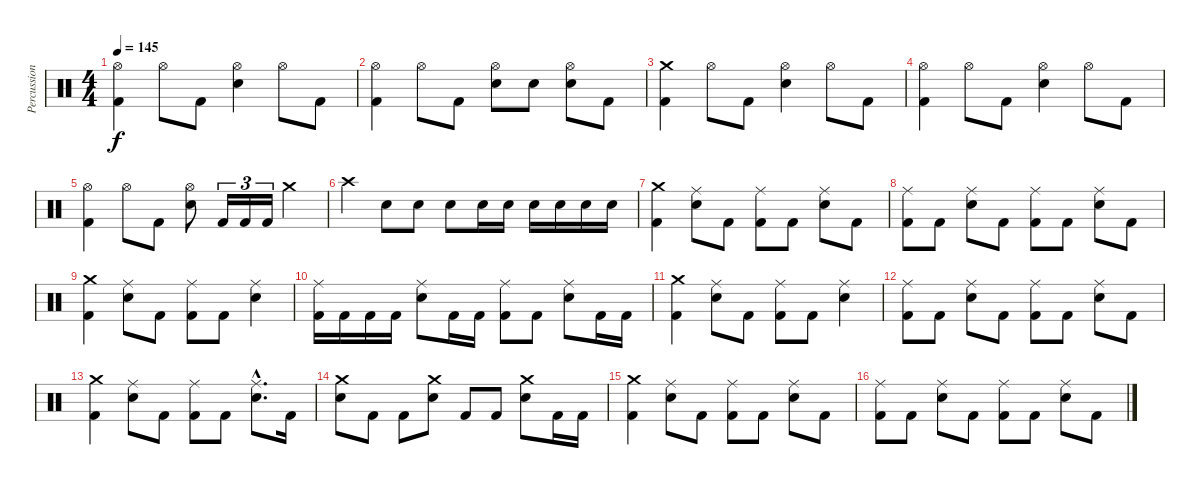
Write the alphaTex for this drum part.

\track ("Percussion" "Percussion") {instrument percussion}
\staff {score}
\articulation defaults
\ts (4 4)
\tempo 145
\clef neutral
\ks c
("Hi-Hat (open)" "Kick (hit) 2").4{dy f} "Hi-Hat (open)".8 "Kick (hit) 2".8 ("Hi-Hat (open)" "Snare (hit) 2").4 "Hi-Hat (open)".8 "Kick (hit) 2".8 |
("Hi-Hat (open)" "Kick (hit) 2").4 "Hi-Hat (open)".8 "Kick (hit) 2".8 ("Hi-Hat (open)" "Snare (hit) 2").8 "Snare (hit) 2".8 ("Hi-Hat (open)" "Snare (hit) 2").8 "Kick (hit) 2".8 |
("Crash medium (hit)" "Kick (hit) 2").4 "Hi-Hat (open)".8 "Kick (hit) 2".8 ("Hi-Hat (open)" "Snare (hit) 2").4 "Hi-Hat (open)".8 "Kick (hit) 2".8 |
("Hi-Hat (open)" "Kick (hit) 2").4 "Hi-Hat (open)".8 "Kick (hit) 2".8 ("Hi-Hat (open)" "Snare (hit) 2").4 "Hi-Hat (open)".8 "Kick (hit) 2".8 |
("Hi-Hat (open)" "Kick (hit) 2").4 "Hi-Hat (open)".8 "Kick (hit) 2".8 ("Hi-Hat (open)" "Snare (hit) 2").8 "Kick (hit) 2".16{tu (3 2)} "Kick (hit) 2".16{tu (3 2)} "Kick (hit) 2".16{tu (3 2)} "Crash medium (hit)".4 |
"Crash high (hit)".4 "Snare (hit) 2".8 "Snare (hit) 2".8 "Snare (hit) 2".8 "Snare (hit) 2".16 "Snare (hit) 2".16 "Snare (hit) 2".16 "Snare (hit) 2".16 "Snare (hit) 2".16 "Snare (hit) 2".16 |
("Crash medium (hit)" "Kick (hit) 2").4 ("Ride (middle)" "Snare (hit) 2").8 "Kick (hit) 2".8 ("Ride (middle)" "Kick (hit) 2").8 "Kick (hit) 2".8 ("Ride (middle)" "Snare (hit) 2").8 "Kick (hit) 2".8 |
("Ride (middle)" "Kick (hit) 2").8 "Kick (hit) 2".8 ("Ride (middle)" "Snare (hit) 2").8 "Kick (hit) 2".8 ("Ride (middle)" "Kick (hit) 2").8 "Kick (hit) 2".8 ("Ride (middle)" "Snare (hit) 2").8 "Kick (hit) 2".8 |
("Crash medium (hit)" "Kick (hit) 2").4 ("Ride (middle)" "Snare (hit) 2").8 "Kick (hit) 2".8 ("Ride (middle)" "Kick (hit) 2").8 "Kick (hit) 2".8 ("Ride (middle)" "Snare (hit) 2").4 |
("Ride (middle)" "Kick (hit) 2").16 "Kick (hit) 2".16 "Kick (hit) 2".16 "Kick (hit) 2".16 ("Ride (middle)" "Snare (hit) 2").8 "Kick (hit) 2".16 "Kick (hit) 2".16 ("Ride (middle)" "Kick (hit) 2").8 "Kick (hit) 2".8 ("Ride (middle)" "Snare (hit) 2").8 "Kick (hit) 2".16 "Kick (hit) 2".16 |
("Crash medium (hit)" "Kick (hit) 2").4 ("Ride (middle)" "Snare (hit) 2").8 "Kick (hit) 2".8 ("Ride (middle)" "Kick (hit) 2").8 "Kick (hit) 2".8 ("Ride (middle)" "Snare (hit) 2").4 |
("Ride (middle)" "Kick (hit) 2").8 "Kick (hit) 2".8 ("Ride (middle)" "Snare (hit) 2").8 "Kick (hit) 2".8 ("Ride (middle)" "Kick (hit) 2").8 "Kick (hit) 2".8 ("Ride (middle)" "Snare (hit) 2").8 "Kick (hit) 2".8 |
("Crash medium (hit)" "Kick (hit) 2").4 ("Ride (middle)" "Snare (hit) 2").8 "Kick (hit) 2".8 ("Ride (middle)" "Kick (hit) 2").8 "Kick (hit) 2".8 ("Ride (middle)"{hac} "Snare (hit) 2"{hac}).8{d} "Kick (hit) 2".16 |
("Crash medium (hit)" "Snare (hit) 2").8 "Kick (hit) 2".8 "Kick (hit) 2".8 ("Crash medium (hit)" "Snare (hit) 2").8 "Kick (hit) 2".8 "Kick (hit) 2".8 ("Crash medium (hit)" "Snare (hit) 2").8 "Kick (hit) 2".16 "Kick (hit) 2".16 |
("Crash medium (hit)" "Kick (hit) 2").4 ("Ride (middle)" "Snare (hit) 2").8 "Kick (hit) 2".8 ("Ride (middle)" "Kick (hit) 2").8 "Kick (hit) 2".8 ("Ride (middle)" "Snare (hit) 2").8 "Kick (hit) 2".8 |
("Ride (middle)" "Kick (hit) 2").8 "Kick (hit) 2".8 ("Ride (middle)" "Snare (hit) 2").8 "Kick (hit) 2".8 ("Ride (middle)" "Kick (hit) 2").8 "Kick (hit) 2".8 ("Ride (middle)" "Snare (hit) 2").8 "Kick (hit) 2".8
